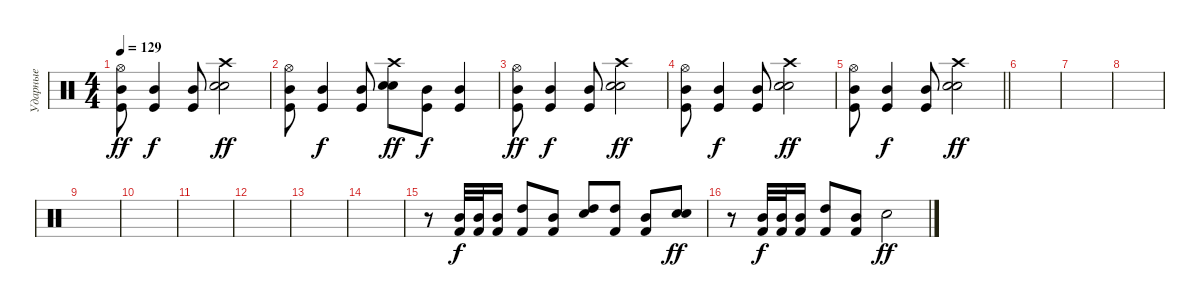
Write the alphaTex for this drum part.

\track ("Ударные" "Ударные") {instrument percussion}
\staff {score}
\articulation defaults
\ts (4 4)
\tempo 129
\clef neutral
\ks c
("Kick (hit)" "Mid Tom (hit)" "Hi-Hat (open)").8{dy ff} ("Kick (hit)" "Mid Tom (hit)").4{dy f} ("Kick (hit)" "Mid Tom (hit)").8 ("Snare (hit) 2" "Snare (hit) 2" "Crash high (hit)").2{dy ff} |
("Kick (hit)" "Mid Tom (hit)" "Hi-Hat (open)").8 ("Kick (hit)" "Mid Tom (hit)").4{dy f} ("Kick (hit)" "Mid Tom (hit)").8 ("Snare (hit) 2" "Snare (hit) 2" "Crash high (hit)").8{dy ff} ("Kick (hit)" "Mid Tom (hit)").8{dy f} ("Kick (hit)" "Mid Tom (hit)").4 |
("Kick (hit)" "Mid Tom (hit)" "Hi-Hat (open)").8{dy ff} ("Kick (hit)" "Mid Tom (hit)").4{dy f} ("Kick (hit)" "Mid Tom (hit)").8 ("Snare (hit) 2" "Snare (hit) 2" "Crash high (hit)").2{dy ff} |
("Kick (hit)" "Mid Tom (hit)" "Hi-Hat (open)").8 ("Kick (hit)" "Mid Tom (hit)").4{dy f} ("Kick (hit)" "Mid Tom (hit)").8 ("Snare (hit) 2" "Snare (hit) 2" "Crash high (hit)").2{dy ff} |
\barLineRight lightlight
("Kick (hit)" "Mid Tom (hit)" "Hi-Hat (open)").8 ("Kick (hit)" "Mid Tom (hit)").4{dy f} ("Kick (hit)" "Mid Tom (hit)").8 ("Snare (hit) 2" "Snare (hit) 2" "Crash high (hit)").2{dy ff} |
|
|
|
|
|
|
|
|
|
r.8 ("Kick (hit) 2" "Mid Tom (hit)").32{dy f} ("Kick (hit) 2" "Mid Tom (hit)").32 ("Kick (hit) 2" "Mid Tom (hit)").16 ("Kick (hit) 2" "High Tom (hit)").8 ("Kick (hit) 2" "Mid Tom (hit)").8 ("Electric Snare (hit)" "High Tom (hit)").8 ("High Tom (hit)" "Kick (hit) 2").8 ("Mid Tom (hit)" "Kick (hit) 2").8 ("Electric Snare (hit)" "Electric Snare (hit)").8{dy ff} |
r.8 ("Kick (hit) 2" "Mid Tom (hit)").32{dy f} ("Kick (hit) 2" "Mid Tom (hit)").32 ("Kick (hit) 2" "Mid Tom (hit)").16 ("Kick (hit) 2" "High Tom (hit)").8 ("Kick (hit) 2" "Mid Tom (hit)").8 "Electric Snare (hit)".2{dy ff}
